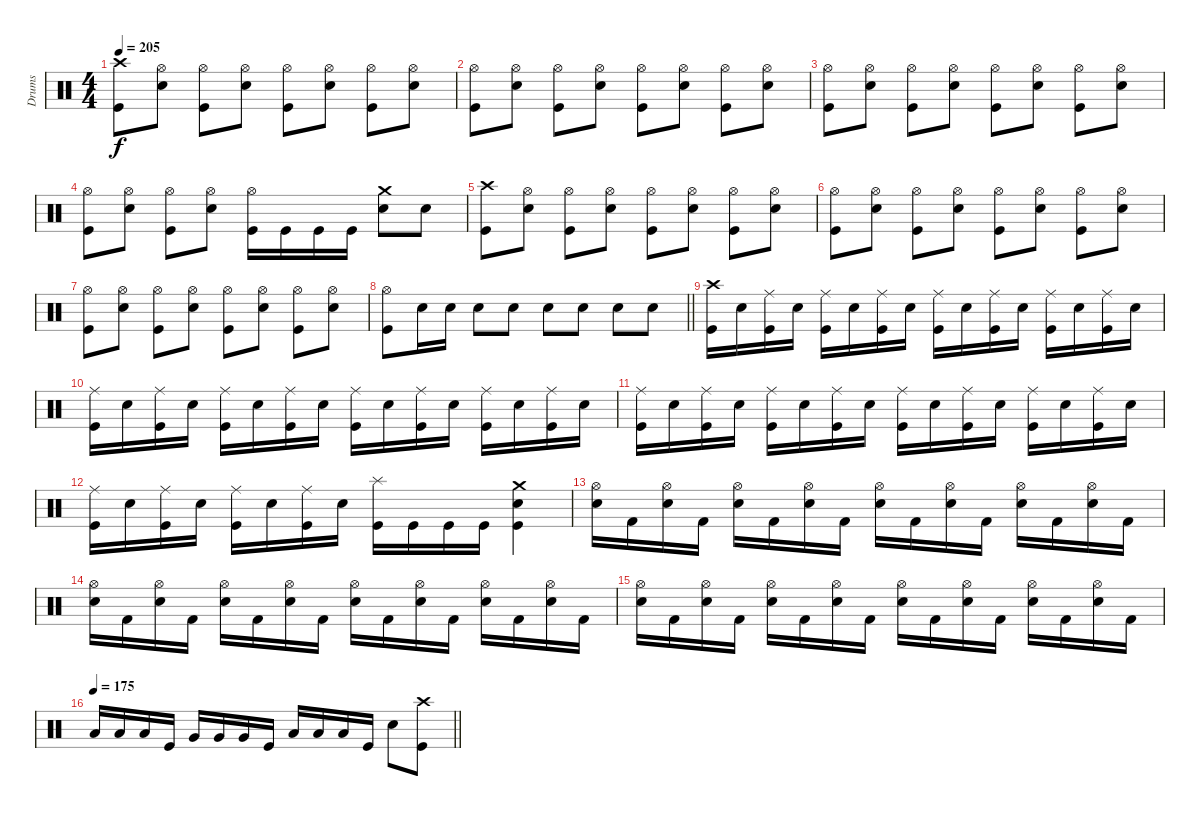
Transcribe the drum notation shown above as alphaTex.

\track ("Drums" "Drums") {instrument percussion}
\staff {score}
\articulation defaults
\ts (4 4)
\tempo 205
\clef neutral
\ks c
("Crash high (hit)" "Kick (hit)").8{dy f} ("Hi-Hat (open)" "Electric Snare (hit)").8 ("Hi-Hat (open)" "Kick (hit)").8 ("Hi-Hat (open)" "Electric Snare (hit)").8 ("Hi-Hat (open)" "Kick (hit)").8 ("Hi-Hat (open)" "Electric Snare (hit)").8 ("Hi-Hat (open)" "Kick (hit)").8 ("Hi-Hat (open)" "Electric Snare (hit)").8 |
("Hi-Hat (open)" "Kick (hit)").8 ("Hi-Hat (open)" "Electric Snare (hit)").8 ("Hi-Hat (open)" "Kick (hit)").8 ("Hi-Hat (open)" "Electric Snare (hit)").8 ("Hi-Hat (open)" "Kick (hit)").8 ("Hi-Hat (open)" "Electric Snare (hit)").8 ("Hi-Hat (open)" "Kick (hit)").8 ("Hi-Hat (open)" "Electric Snare (hit)").8 |
("Hi-Hat (open)" "Kick (hit)").8 ("Hi-Hat (open)" "Electric Snare (hit)").8 ("Hi-Hat (open)" "Kick (hit)").8 ("Hi-Hat (open)" "Electric Snare (hit)").8 ("Hi-Hat (open)" "Kick (hit)").8 ("Hi-Hat (open)" "Electric Snare (hit)").8 ("Hi-Hat (open)" "Kick (hit)").8 ("Hi-Hat (open)" "Electric Snare (hit)").8 |
("Hi-Hat (open)" "Kick (hit)").8 ("Hi-Hat (open)" "Electric Snare (hit)").8 ("Hi-Hat (open)" "Kick (hit)").8 ("Hi-Hat (open)" "Electric Snare (hit)").8 ("Hi-Hat (open)" "Kick (hit)").16 "Kick (hit)".16 "Kick (hit)".16 "Kick (hit)".16 ("Crash medium (hit)" "Electric Snare (hit)").8 "Electric Snare (hit)".8 |
("Crash high (hit)" "Kick (hit)").8 ("Hi-Hat (open)" "Electric Snare (hit)").8 ("Hi-Hat (open)" "Kick (hit)").8 ("Hi-Hat (open)" "Electric Snare (hit)").8 ("Hi-Hat (open)" "Kick (hit)").8 ("Hi-Hat (open)" "Electric Snare (hit)").8 ("Hi-Hat (open)" "Kick (hit)").8 ("Hi-Hat (open)" "Electric Snare (hit)").8 |
("Hi-Hat (open)" "Kick (hit)").8 ("Hi-Hat (open)" "Electric Snare (hit)").8 ("Hi-Hat (open)" "Kick (hit)").8 ("Hi-Hat (open)" "Electric Snare (hit)").8 ("Hi-Hat (open)" "Kick (hit)").8 ("Hi-Hat (open)" "Electric Snare (hit)").8 ("Hi-Hat (open)" "Kick (hit)").8 ("Hi-Hat (open)" "Electric Snare (hit)").8 |
("Hi-Hat (open)" "Kick (hit)").8 ("Hi-Hat (open)" "Electric Snare (hit)").8 ("Hi-Hat (open)" "Kick (hit)").8 ("Hi-Hat (open)" "Electric Snare (hit)").8 ("Hi-Hat (open)" "Kick (hit)").8 ("Hi-Hat (open)" "Electric Snare (hit)").8 ("Hi-Hat (open)" "Kick (hit)").8 ("Hi-Hat (open)" "Electric Snare (hit)").8 |
\barLineRight lightlight
("Hi-Hat (open)" "Kick (hit)").8 "Electric Snare (hit)".16 "Electric Snare (hit)".16 "Electric Snare (hit)".8 "Electric Snare (hit)".8 "Electric Snare (hit)".8 "Electric Snare (hit)".8 "Electric Snare (hit)".8 "Electric Snare (hit)".8 |
("Crash high (hit)" "Kick (hit)").16 "Electric Snare (hit)".16 ("Ride (middle)" "Kick (hit)").16 "Electric Snare (hit)".16 ("Ride (middle)" "Kick (hit)").16 "Electric Snare (hit)".16 ("Ride (middle)" "Kick (hit)").16 "Electric Snare (hit)".16 ("Ride (middle)" "Kick (hit)").16 "Electric Snare (hit)".16 ("Ride (middle)" "Kick (hit)").16 "Electric Snare (hit)".16 ("Ride (middle)" "Kick (hit)").16 "Electric Snare (hit)".16 ("Ride (middle)" "Kick (hit)").16 "Electric Snare (hit)".16 |
("Ride (middle)" "Kick (hit)").16 "Electric Snare (hit)".16 ("Ride (middle)" "Kick (hit)").16 "Electric Snare (hit)".16 ("Ride (middle)" "Kick (hit)").16 "Electric Snare (hit)".16 ("Ride (middle)" "Kick (hit)").16 "Electric Snare (hit)".16 ("Ride (middle)" "Kick (hit)").16 "Electric Snare (hit)".16 ("Ride (middle)" "Kick (hit)").16 "Electric Snare (hit)".16 ("Ride (middle)" "Kick (hit)").16 "Electric Snare (hit)".16 ("Ride (middle)" "Kick (hit)").16 "Electric Snare (hit)".16 |
("Ride (middle)" "Kick (hit)").16 "Electric Snare (hit)".16 ("Ride (middle)" "Kick (hit)").16 "Electric Snare (hit)".16 ("Ride (middle)" "Kick (hit)").16 "Electric Snare (hit)".16 ("Ride (middle)" "Kick (hit)").16 "Electric Snare (hit)".16 ("Ride (middle)" "Kick (hit)").16 "Electric Snare (hit)".16 ("Ride (middle)" "Kick (hit)").16 "Electric Snare (hit)".16 ("Ride (middle)" "Kick (hit)").16 "Electric Snare (hit)".16 ("Ride (middle)" "Kick (hit)").16 "Electric Snare (hit)".16 |
("Ride (middle)" "Kick (hit)").16 "Electric Snare (hit)".16 ("Ride (middle)" "Kick (hit)").16 "Electric Snare (hit)".16 ("Ride (middle)" "Kick (hit)").16 "Electric Snare (hit)".16 ("Ride (middle)" "Kick (hit)").16 "Electric Snare (hit)".16 ("Splash (hit)" "Kick (hit)").16 "Kick (hit)".16 "Kick (hit)".16 "Kick (hit)".16 ("Crash medium (hit)" "Electric Snare (hit)" "Kick (hit)").4 |
("Hi-Hat (open)" "Electric Snare (hit)").16 "Kick (hit) 2".16 ("Hi-Hat (open)" "Electric Snare (hit)").16 "Kick (hit) 2".16 ("Hi-Hat (open)" "Electric Snare (hit)").16 "Kick (hit) 2".16 ("Hi-Hat (open)" "Electric Snare (hit)").16 "Kick (hit) 2".16 ("Hi-Hat (open)" "Electric Snare (hit)").16 "Kick (hit) 2".16 ("Hi-Hat (open)" "Electric Snare (hit)").16 "Kick (hit) 2".16 ("Hi-Hat (open)" "Electric Snare (hit)").16 "Kick (hit) 2".16 ("Hi-Hat (open)" "Electric Snare (hit)").16 "Kick (hit) 2".16 |
("Hi-Hat (open)" "Electric Snare (hit)").16 "Kick (hit) 2".16 ("Hi-Hat (open)" "Electric Snare (hit)").16 "Kick (hit) 2".16 ("Hi-Hat (open)" "Electric Snare (hit)").16 "Kick (hit) 2".16 ("Hi-Hat (open)" "Electric Snare (hit)").16 "Kick (hit) 2".16 ("Hi-Hat (open)" "Electric Snare (hit)").16 "Kick (hit) 2".16 ("Hi-Hat (open)" "Electric Snare (hit)").16 "Kick (hit) 2".16 ("Hi-Hat (open)" "Electric Snare (hit)").16 "Kick (hit) 2".16 ("Hi-Hat (open)" "Electric Snare (hit)").16 "Kick (hit) 2".16 |
("Hi-Hat (open)" "Electric Snare (hit)").16 "Kick (hit) 2".16 ("Hi-Hat (open)" "Electric Snare (hit)").16 "Kick (hit) 2".16 ("Hi-Hat (open)" "Electric Snare (hit)").16 "Kick (hit) 2".16 ("Hi-Hat (open)" "Electric Snare (hit)").16 "Kick (hit) 2".16 ("Hi-Hat (open)" "Electric Snare (hit)").16 "Kick (hit) 2".16 ("Hi-Hat (open)" "Electric Snare (hit)").16 "Kick (hit) 2".16 ("Hi-Hat (open)" "Electric Snare (hit)").16 "Kick (hit) 2".16 ("Hi-Hat (open)" "Electric Snare (hit)").16 "Kick (hit) 2".16 |
\tempo 175
\barLineRight lightlight "Low Tom (hit)".16 "Low Tom (hit)".16 "Low Tom (hit)".16 "Kick (hit)".16 "Very Low Tom (hit)".16 "Very Low Tom (hit)".16 "Very Low Tom (hit)".16 "Kick (hit)".16 "Low Floor Tom (hit)".16 "Low Floor Tom (hit)".16 "Low Floor Tom (hit)".16 "Kick (hit)".16 "Electric Snare (hit)".8
("Crash high (hit)" "Kick (hit)").8
